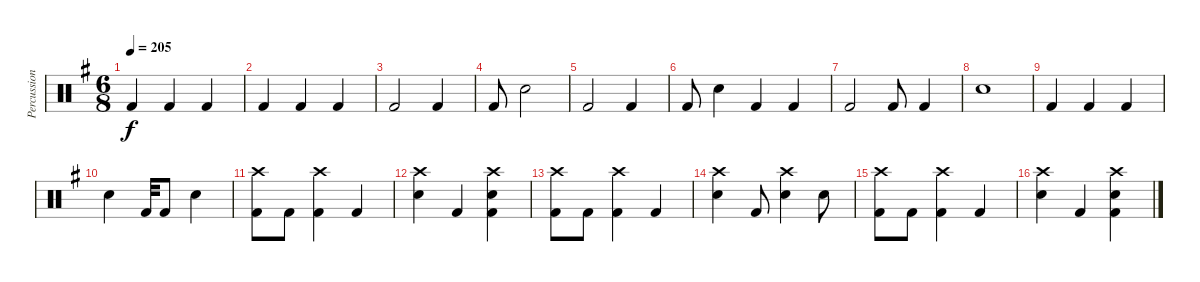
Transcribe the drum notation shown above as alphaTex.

\track ("Percussion" "Percussion") {instrument percussion}
\staff {score}
\articulation defaults
\ts (6 8)
\tempo 205
\clef neutral
\ks g "Kick (hit) 2".4{dy f} "Kick (hit) 2".4 "Kick (hit) 2".4
|
"Kick (hit) 2".4 "Kick (hit) 2".4 "Kick (hit) 2".4 |
"Kick (hit) 2".2 "Kick (hit) 2".4 |
"Kick (hit) 2".8 "Electric Snare (hit)".2 |
"Kick (hit) 2".2 "Kick (hit) 2".4 |
"Kick (hit) 2".8 "Electric Snare (hit)".4 "Kick (hit) 2".4 "Kick (hit) 2".4 |
"Kick (hit) 2".2 "Kick (hit) 2".8 "Kick (hit) 2".4 |
"Electric Snare (hit)".1 |
"Kick (hit) 2".4 "Kick (hit) 2".4 "Kick (hit) 2".4 |
"Electric Snare (hit)".4 "Kick (hit) 2".32 "Kick (hit) 2".8 "Electric Snare (hit)".4 |
("Crash high (hit)" "Kick (hit) 2").8 "Kick (hit) 2".8 ("Crash high (hit)" "Kick (hit) 2").4 "Kick (hit) 2".4 |
("Crash high (hit)" "Electric Snare (hit)").4 "Kick (hit) 2".4 ("Electric Snare (hit)" "Kick (hit) 2" "Crash high (hit)").4 |
("Crash high (hit)" "Kick (hit) 2").8 "Kick (hit) 2".8 ("Crash high (hit)" "Kick (hit) 2").4 "Kick (hit) 2".4 |
("Crash high (hit)" "Electric Snare (hit)").4 "Kick (hit) 2".8 ("Crash high (hit)" "Electric Snare (hit)").4 "Electric Snare (hit)".8 |
("Crash high (hit)" "Kick (hit) 2").8 "Kick (hit) 2".8 ("Crash high (hit)" "Kick (hit) 2").4 "Kick (hit) 2".4 |
("Crash high (hit)" "Electric Snare (hit)").4 "Kick (hit) 2".4 ("Electric Snare (hit)" "Kick (hit) 2" "Crash high (hit)").4
